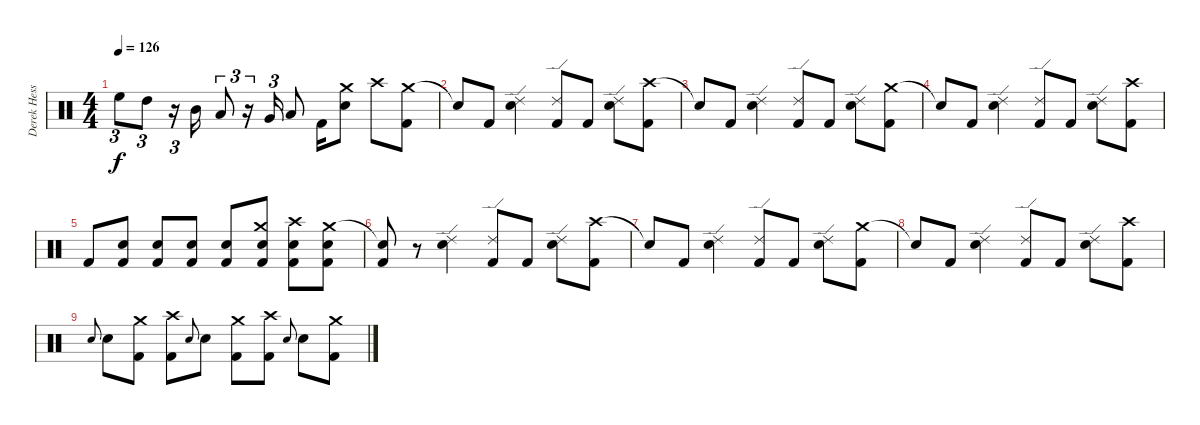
\track ("Derek Hess - Drums and Percussion" "Derek Hess") {instrument percussion}
\staff {score}
\articulation defaults
\ts (4 4)
\tempo 126
\clef neutral
\ks c "High Floor Tom (hit)".8{tu (3 2) dy f} "High Tom (hit)".8{tu (3 2)}
r.16{tu (3 2)} "Mid Tom (hit)".16 "Low Tom (hit)".8{tu (3 2)} r.16{tu (3 2)} "Very Low Tom (hit)".16{tu (3 2)} "Low Floor Tom (hit)".8 "Kick (hit) 2".16 ("Crash medium (hit)" "Snare (hit) 2").8 "Crash high (hit)".8 ("Crash medium (hit)" "Kick (hit) 2").8 |
"Snare (hit)"{t}.8 "Kick (hit) 2".8 ("Ride (edge) 2" "Snare (hit) 2").4 ("Ride (edge) 2" "Kick (hit) 2").8 "Kick (hit) 2".8 ("Ride (edge) 2" "Snare (hit) 2").8 ("Crash high (hit)" "Kick (hit) 2").8 |
"Snare (hit)"{t}.8 "Kick (hit) 2".8 ("Ride (edge) 2" "Snare (hit) 2").4 ("Ride (edge) 2" "Kick (hit) 2").8 "Kick (hit) 2".8 ("Ride (edge) 2" "Snare (hit) 2").8 ("Crash medium (hit)" "Kick (hit) 2").8 |
"Snare (hit)"{t}.8 "Kick (hit) 2".8 ("Ride (edge) 2" "Snare (hit) 2").4 ("Ride (edge) 2" "Kick (hit) 2").8 "Kick (hit) 2".8 ("Ride (edge) 2" "Snare (hit) 2").8 ("Crash high (hit)" "Kick (hit) 2").8 |
"Kick (hit) 2".8 ("Snare (hit) 2" "Kick (hit) 2").8 ("Snare (hit) 2" "Kick (hit) 2").8 ("Snare (hit) 2" "Kick (hit) 2").8 ("Snare (hit) 2" "Kick (hit) 2").8 ("Crash medium (hit)" "Snare (hit) 2" "Kick (hit) 2").8 ("Crash high (hit)" "Snare (hit) 2" "Kick (hit) 2").8 ("Crash medium (hit)" "Snare (hit) 2" "Kick (hit) 2").8 |
("Snare (hit)"{t} "Kick (hit) 2").8 r.8 ("Ride (edge) 2" "Snare (hit) 2").4 ("Ride (edge) 2" "Kick (hit) 2").8 "Kick (hit) 2".8 ("Ride (edge) 2" "Snare (hit) 2").8 ("Crash high (hit)" "Kick (hit) 2").8 |
"Snare (hit)"{t}.8 "Kick (hit) 2".8 ("Ride (edge) 2" "Snare (hit) 2").4 ("Ride (edge) 2" "Kick (hit) 2").8 "Kick (hit) 2".8 ("Ride (edge) 2" "Snare (hit) 2").8 ("Crash medium (hit)" "Kick (hit) 2").8 |
"Snare (hit)"{t}.8 "Kick (hit) 2".8 ("Ride (edge) 2" "Snare (hit) 2").4 ("Ride (edge) 2" "Kick (hit) 2").8 "Kick (hit) 2".8 ("Ride (edge) 2" "Snare (hit) 2").8 ("Crash high (hit)" "Kick (hit) 2").8 |
"Snare (hit) 2".8{gr onbeat} "Snare (hit) 2".8 ("Crash medium (hit)" "Kick (hit) 2").8 ("Crash high (hit)" "Kick (hit) 2").8 "Snare (hit) 2".8{gr onbeat} "Snare (hit) 2".8 ("Crash medium (hit)" "Kick (hit) 2").8 ("Crash high (hit)" "Kick (hit) 2").8 "Snare (hit) 2".8{gr onbeat} "Snare (hit) 2".8 ("Crash medium (hit)" "Kick (hit) 2").8
